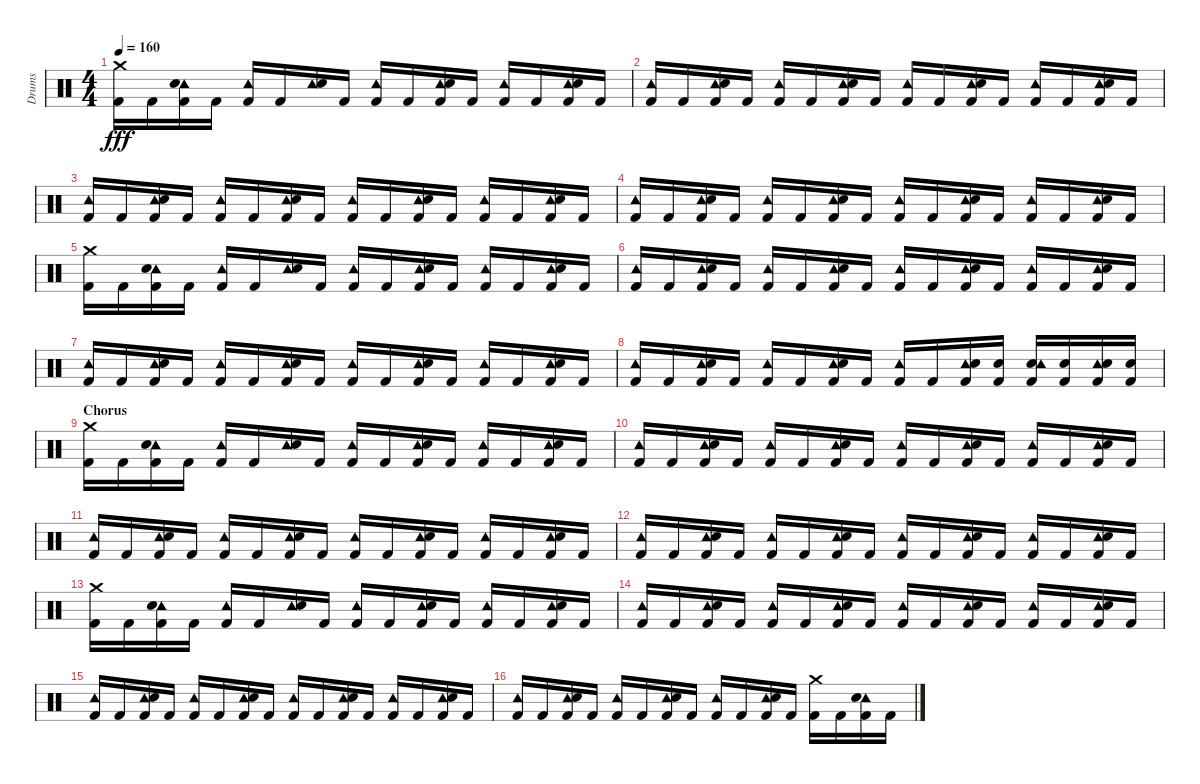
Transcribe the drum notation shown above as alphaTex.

\track ("Drums" "Drums") {instrument percussion}
\staff {score}
\articulation defaults
\ts (4 4)
\tempo 160
\clef neutral
\ks c
("Crash medium (hit)" "Kick (hit) 2").16{dy fff} "Kick (hit) 2".16 ("Kick (hit) 2" "Tambourine (hit)" "Electric Snare (hit)").16 "Kick (hit) 2".16 ("Kick (hit) 2" "Tambourine (hit)").16 "Kick (hit) 2".16 ("Tambourine (hit)" "Electric Snare (hit)").16 "Kick (hit) 2".16 ("Kick (hit) 2" "Tambourine (hit)").16 "Kick (hit) 2".16 ("Kick (hit) 2" "Tambourine (hit)" "Electric Snare (hit)").16 "Kick (hit) 2".16 ("Kick (hit) 2" "Tambourine (hit)").16 "Kick (hit) 2".16 ("Kick (hit) 2" "Tambourine (hit)" "Electric Snare (hit)").16 "Kick (hit) 2".16 |
("Kick (hit) 2" "Tambourine (hit)").16 "Kick (hit) 2".16 ("Kick (hit) 2" "Tambourine (hit)" "Electric Snare (hit)").16 "Kick (hit) 2".16 ("Kick (hit) 2" "Tambourine (hit)").16 "Kick (hit) 2".16 ("Kick (hit) 2" "Tambourine (hit)" "Electric Snare (hit)").16 "Kick (hit) 2".16 ("Kick (hit) 2" "Tambourine (hit)").16 "Kick (hit) 2".16 ("Kick (hit) 2" "Tambourine (hit)" "Electric Snare (hit)").16 "Kick (hit) 2".16 ("Kick (hit) 2" "Tambourine (hit)").16 "Kick (hit) 2".16 ("Kick (hit) 2" "Tambourine (hit)" "Electric Snare (hit)").16 "Kick (hit) 2".16 |
("Kick (hit) 2" "Tambourine (hit)").16 "Kick (hit) 2".16 ("Kick (hit) 2" "Tambourine (hit)" "Electric Snare (hit)").16 "Kick (hit) 2".16 ("Kick (hit) 2" "Tambourine (hit)").16 "Kick (hit) 2".16 ("Kick (hit) 2" "Tambourine (hit)" "Electric Snare (hit)").16 "Kick (hit) 2".16 ("Kick (hit) 2" "Tambourine (hit)").16 "Kick (hit) 2".16 ("Kick (hit) 2" "Tambourine (hit)" "Electric Snare (hit)").16 "Kick (hit) 2".16 ("Kick (hit) 2" "Tambourine (hit)").16 "Kick (hit) 2".16 ("Kick (hit) 2" "Tambourine (hit)" "Electric Snare (hit)").16 "Kick (hit) 2".16 |
("Kick (hit) 2" "Tambourine (hit)").16 "Kick (hit) 2".16 ("Kick (hit) 2" "Tambourine (hit)" "Electric Snare (hit)").16 "Kick (hit) 2".16 ("Kick (hit) 2" "Tambourine (hit)").16 "Kick (hit) 2".16 ("Kick (hit) 2" "Tambourine (hit)" "Electric Snare (hit)").16 "Kick (hit) 2".16 ("Kick (hit) 2" "Tambourine (hit)").16 "Kick (hit) 2".16 ("Kick (hit) 2" "Tambourine (hit)" "Electric Snare (hit)").16 "Kick (hit) 2".16 ("Kick (hit) 2" "Tambourine (hit)").16 "Kick (hit) 2".16 ("Kick (hit) 2" "Tambourine (hit)" "Electric Snare (hit)").16 "Kick (hit) 2".16 |
("Crash medium (hit)" "Kick (hit) 2").16 "Kick (hit) 2".16 ("Kick (hit) 2" "Tambourine (hit)" "Electric Snare (hit)").16 "Kick (hit) 2".16 ("Kick (hit) 2" "Tambourine (hit)").16 "Kick (hit) 2".16 ("Tambourine (hit)" "Electric Snare (hit)").16 "Kick (hit) 2".16 ("Kick (hit) 2" "Tambourine (hit)").16 "Kick (hit) 2".16 ("Kick (hit) 2" "Tambourine (hit)" "Electric Snare (hit)").16 "Kick (hit) 2".16 ("Kick (hit) 2" "Tambourine (hit)").16 "Kick (hit) 2".16 ("Kick (hit) 2" "Tambourine (hit)" "Electric Snare (hit)").16 "Kick (hit) 2".16 |
("Kick (hit) 2" "Tambourine (hit)").16 "Kick (hit) 2".16 ("Kick (hit) 2" "Tambourine (hit)" "Electric Snare (hit)").16 "Kick (hit) 2".16 ("Kick (hit) 2" "Tambourine (hit)").16 "Kick (hit) 2".16 ("Kick (hit) 2" "Tambourine (hit)" "Electric Snare (hit)").16 "Kick (hit) 2".16 ("Kick (hit) 2" "Tambourine (hit)").16 "Kick (hit) 2".16 ("Kick (hit) 2" "Tambourine (hit)" "Electric Snare (hit)").16 "Kick (hit) 2".16 ("Kick (hit) 2" "Tambourine (hit)").16 "Kick (hit) 2".16 ("Kick (hit) 2" "Tambourine (hit)" "Electric Snare (hit)").16 "Kick (hit) 2".16 |
("Kick (hit) 2" "Tambourine (hit)").16 "Kick (hit) 2".16 ("Kick (hit) 2" "Tambourine (hit)" "Electric Snare (hit)").16 "Kick (hit) 2".16 ("Kick (hit) 2" "Tambourine (hit)").16 "Kick (hit) 2".16 ("Kick (hit) 2" "Tambourine (hit)" "Electric Snare (hit)").16 "Kick (hit) 2".16 ("Kick (hit) 2" "Tambourine (hit)").16 "Kick (hit) 2".16 ("Kick (hit) 2" "Tambourine (hit)" "Electric Snare (hit)").16 "Kick (hit) 2".16 ("Kick (hit) 2" "Tambourine (hit)").16 "Kick (hit) 2".16 ("Kick (hit) 2" "Tambourine (hit)" "Electric Snare (hit)").16 "Kick (hit) 2".16 |
("Kick (hit) 2" "Tambourine (hit)").16 "Kick (hit) 2".16 ("Kick (hit) 2" "Tambourine (hit)" "Electric Snare (hit)").16 "Kick (hit) 2".16 ("Kick (hit) 2" "Tambourine (hit)").16 "Kick (hit) 2".16 ("Kick (hit) 2" "Tambourine (hit)" "Electric Snare (hit)").16 "Kick (hit) 2".16 ("Kick (hit) 2" "Tambourine (hit)").16 "Kick (hit) 2".16 ("Kick (hit) 2" "Tambourine (hit)" "Electric Snare (hit)").16 ("Kick (hit) 2" "Electric Snare (hit)").16 ("Electric Snare (hit)" "Kick (hit) 2" "Tambourine (hit)").16 ("Electric Snare (hit)" "Kick (hit) 2").16 ("Kick (hit) 2" "Tambourine (hit)" "Electric Snare (hit)").16 ("Electric Snare (hit)" "Kick (hit) 2").16 |
\section ("" "Chorus")
("Crash medium (hit)" "Kick (hit) 2").16 "Kick (hit) 2".16 ("Kick (hit) 2" "Tambourine (hit)" "Electric Snare (hit)").16 "Kick (hit) 2".16 ("Kick (hit) 2" "Tambourine (hit)").16 "Kick (hit) 2".16 ("Tambourine (hit)" "Electric Snare (hit)").16 "Kick (hit) 2".16 ("Kick (hit) 2" "Tambourine (hit)").16 "Kick (hit) 2".16 ("Kick (hit) 2" "Tambourine (hit)" "Electric Snare (hit)").16 "Kick (hit) 2".16 ("Kick (hit) 2" "Tambourine (hit)").16 "Kick (hit) 2".16 ("Kick (hit) 2" "Tambourine (hit)" "Electric Snare (hit)").16 "Kick (hit) 2".16 |
("Kick (hit) 2" "Tambourine (hit)").16 "Kick (hit) 2".16 ("Kick (hit) 2" "Tambourine (hit)" "Electric Snare (hit)").16 "Kick (hit) 2".16 ("Kick (hit) 2" "Tambourine (hit)").16 "Kick (hit) 2".16 ("Kick (hit) 2" "Tambourine (hit)" "Electric Snare (hit)").16 "Kick (hit) 2".16 ("Kick (hit) 2" "Tambourine (hit)").16 "Kick (hit) 2".16 ("Kick (hit) 2" "Tambourine (hit)" "Electric Snare (hit)").16 "Kick (hit) 2".16 ("Kick (hit) 2" "Tambourine (hit)").16 "Kick (hit) 2".16 ("Kick (hit) 2" "Tambourine (hit)" "Electric Snare (hit)").16 "Kick (hit) 2".16 |
("Kick (hit) 2" "Tambourine (hit)").16 "Kick (hit) 2".16 ("Kick (hit) 2" "Tambourine (hit)" "Electric Snare (hit)").16 "Kick (hit) 2".16 ("Kick (hit) 2" "Tambourine (hit)").16 "Kick (hit) 2".16 ("Kick (hit) 2" "Tambourine (hit)" "Electric Snare (hit)").16 "Kick (hit) 2".16 ("Kick (hit) 2" "Tambourine (hit)").16 "Kick (hit) 2".16 ("Kick (hit) 2" "Tambourine (hit)" "Electric Snare (hit)").16 "Kick (hit) 2".16 ("Kick (hit) 2" "Tambourine (hit)").16 "Kick (hit) 2".16 ("Kick (hit) 2" "Tambourine (hit)" "Electric Snare (hit)").16 "Kick (hit) 2".16 |
("Kick (hit) 2" "Tambourine (hit)").16 "Kick (hit) 2".16 ("Kick (hit) 2" "Tambourine (hit)" "Electric Snare (hit)").16 "Kick (hit) 2".16 ("Kick (hit) 2" "Tambourine (hit)").16 "Kick (hit) 2".16 ("Kick (hit) 2" "Tambourine (hit)" "Electric Snare (hit)").16 "Kick (hit) 2".16 ("Kick (hit) 2" "Tambourine (hit)").16 "Kick (hit) 2".16 ("Kick (hit) 2" "Tambourine (hit)" "Electric Snare (hit)").16 "Kick (hit) 2".16 ("Kick (hit) 2" "Tambourine (hit)").16 "Kick (hit) 2".16 ("Kick (hit) 2" "Tambourine (hit)" "Electric Snare (hit)").16 "Kick (hit) 2".16 |
("Crash medium (hit)" "Kick (hit) 2").16 "Kick (hit) 2".16 ("Kick (hit) 2" "Tambourine (hit)" "Electric Snare (hit)").16 "Kick (hit) 2".16 ("Kick (hit) 2" "Tambourine (hit)").16 "Kick (hit) 2".16 ("Tambourine (hit)" "Electric Snare (hit)").16 "Kick (hit) 2".16 ("Kick (hit) 2" "Tambourine (hit)").16 "Kick (hit) 2".16 ("Kick (hit) 2" "Tambourine (hit)" "Electric Snare (hit)").16 "Kick (hit) 2".16 ("Kick (hit) 2" "Tambourine (hit)").16 "Kick (hit) 2".16 ("Kick (hit) 2" "Tambourine (hit)" "Electric Snare (hit)").16 "Kick (hit) 2".16 |
("Kick (hit) 2" "Tambourine (hit)").16 "Kick (hit) 2".16 ("Kick (hit) 2" "Tambourine (hit)" "Electric Snare (hit)").16 "Kick (hit) 2".16 ("Kick (hit) 2" "Tambourine (hit)").16 "Kick (hit) 2".16 ("Kick (hit) 2" "Tambourine (hit)" "Electric Snare (hit)").16 "Kick (hit) 2".16 ("Kick (hit) 2" "Tambourine (hit)").16 "Kick (hit) 2".16 ("Kick (hit) 2" "Tambourine (hit)" "Electric Snare (hit)").16 "Kick (hit) 2".16 ("Kick (hit) 2" "Tambourine (hit)").16 "Kick (hit) 2".16 ("Kick (hit) 2" "Tambourine (hit)" "Electric Snare (hit)").16 "Kick (hit) 2".16 |
("Kick (hit) 2" "Tambourine (hit)").16 "Kick (hit) 2".16 ("Kick (hit) 2" "Tambourine (hit)" "Electric Snare (hit)").16 "Kick (hit) 2".16 ("Kick (hit) 2" "Tambourine (hit)").16 "Kick (hit) 2".16 ("Kick (hit) 2" "Tambourine (hit)" "Electric Snare (hit)").16 "Kick (hit) 2".16 ("Kick (hit) 2" "Tambourine (hit)").16 "Kick (hit) 2".16 ("Kick (hit) 2" "Tambourine (hit)" "Electric Snare (hit)").16 "Kick (hit) 2".16 ("Kick (hit) 2" "Tambourine (hit)").16 "Kick (hit) 2".16 ("Kick (hit) 2" "Tambourine (hit)" "Electric Snare (hit)").16 "Kick (hit) 2".16 |
("Kick (hit) 2" "Tambourine (hit)").16 "Kick (hit) 2".16 ("Kick (hit) 2" "Tambourine (hit)" "Electric Snare (hit)").16 "Kick (hit) 2".16 ("Kick (hit) 2" "Tambourine (hit)").16 "Kick (hit) 2".16 ("Kick (hit) 2" "Tambourine (hit)" "Electric Snare (hit)").16 "Kick (hit) 2".16 ("Kick (hit) 2" "Tambourine (hit)").16 "Kick (hit) 2".16 ("Kick (hit) 2" "Tambourine (hit)" "Electric Snare (hit)").16 "Kick (hit) 2".16 ("Crash medium (hit)" "Kick (hit) 2").16 "Kick (hit) 2".16 ("Kick (hit) 2" "Tambourine (hit)" "Electric Snare (hit)").16 "Kick (hit) 2".16
